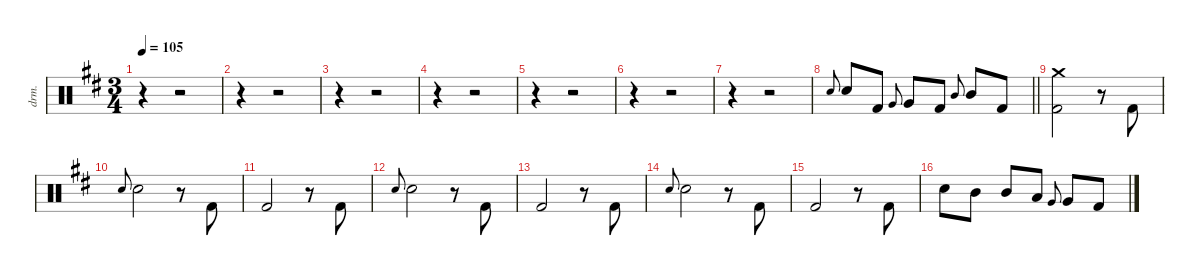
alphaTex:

\defaultSystemsLayout 4
\hideDynamics
\bracketExtendMode nobrackets
\track ("Atma Anur" "drm.") {solo instrument percussion}
\staff {score}
\articulation defaults
\ts (3 4)
\tempo 105
\clef neutral
\ks bminor
r.4{dy mf beam Down} r.2{beam Down} |
r.4{beam Down} r.2{beam Down} |
r.4{beam Down} r.2{beam Down} |
r.4{beam Down} r.2{beam Down} |
r.4{beam Down} r.2{beam Down} |
r.4{beam Down} r.2{beam Down} |
r.4{beam Down} r.2{beam Down} |
\barLineRight lightlight "Electric Snare (hit)"{acc forcenatural}.8{gr onbeat beam Up} "Snare (hit) 2"{acc forcenatural}.8{dy fff beam Up} "Kick (hit) 2"{acc forcenatural}.8{beam Up} "Very Low Tom (hit)"{acc forcenatural}.8{gr onbeat dy mf beam Up} "Very Low Tom (hit)"{acc forcenatural}.8{dy fff beam Up} "Kick (hit) 2"{acc forcenatural}.8{beam Up} "Mid Tom (hit)"{acc forcenatural}.8{gr onbeat dy mf beam Up} "Mid Tom (hit)"{acc forcenatural}.8{dy fff beam Up} "Kick (hit) 2"{acc forcenatural}.8{beam Up}
|
\section ("" "")
("Crash medium (hit)"{acc forcenatural} "Kick (hit) 2"{acc forcenatural}).2{beam Down} r.8{beam Down} "Kick (hit) 2"{acc forcenatural}.8{beam Up} |
"Electric Snare (hit)"{acc forcenatural}.8{gr onbeat dy ff beam Up} "Snare (hit) 2"{acc forcenatural}.2{dy fff beam Down} r.8{beam Down} "Kick (hit) 2"{acc forcenatural}.8{beam Up} |
"Kick (hit) 2"{acc forcenatural}.2{beam Up} r.8{beam Down} "Kick (hit) 2"{acc forcenatural}.8{beam Up} |
"Electric Snare (hit)"{acc forcenatural}.8{gr onbeat dy ff beam Up} "Snare (hit) 2"{acc forcenatural}.2{dy fff beam Down} r.8{beam Down} "Kick (hit) 2"{acc forcenatural}.8{beam Up} |
"Kick (hit) 2"{acc forcenatural}.2{beam Up} r.8{beam Down} "Kick (hit) 2"{acc forcenatural}.8{beam Up} |
"Electric Snare (hit)"{acc forcenatural}.8{gr onbeat dy ff beam Up} "Snare (hit) 2"{acc forcenatural}.2{dy fff beam Down} r.8{beam Down} "Kick (hit) 2"{acc forcenatural}.8{beam Up} |
"Kick (hit) 2"{acc forcenatural}.2{beam Up} r.8{beam Down} "Kick (hit) 2"{acc forcenatural}.8{beam Up} |
"Snare (hit) 2"{acc forcenatural}.8{beam Down} "Mid Tom (hit)"{acc forcenatural}.8{beam Down} "Mid Tom (hit)"{acc forcenatural}.8{beam Up} "Low Tom (hit)"{acc forcenatural}.8{beam Up} "Very Low Tom (hit)"{acc forcenatural}.8{gr onbeat dy ff beam Up} "Very Low Tom (hit)"{acc forcenatural}.8{dy fff beam Up} "Kick (hit) 2"{acc forcenatural}.8{beam Up}
